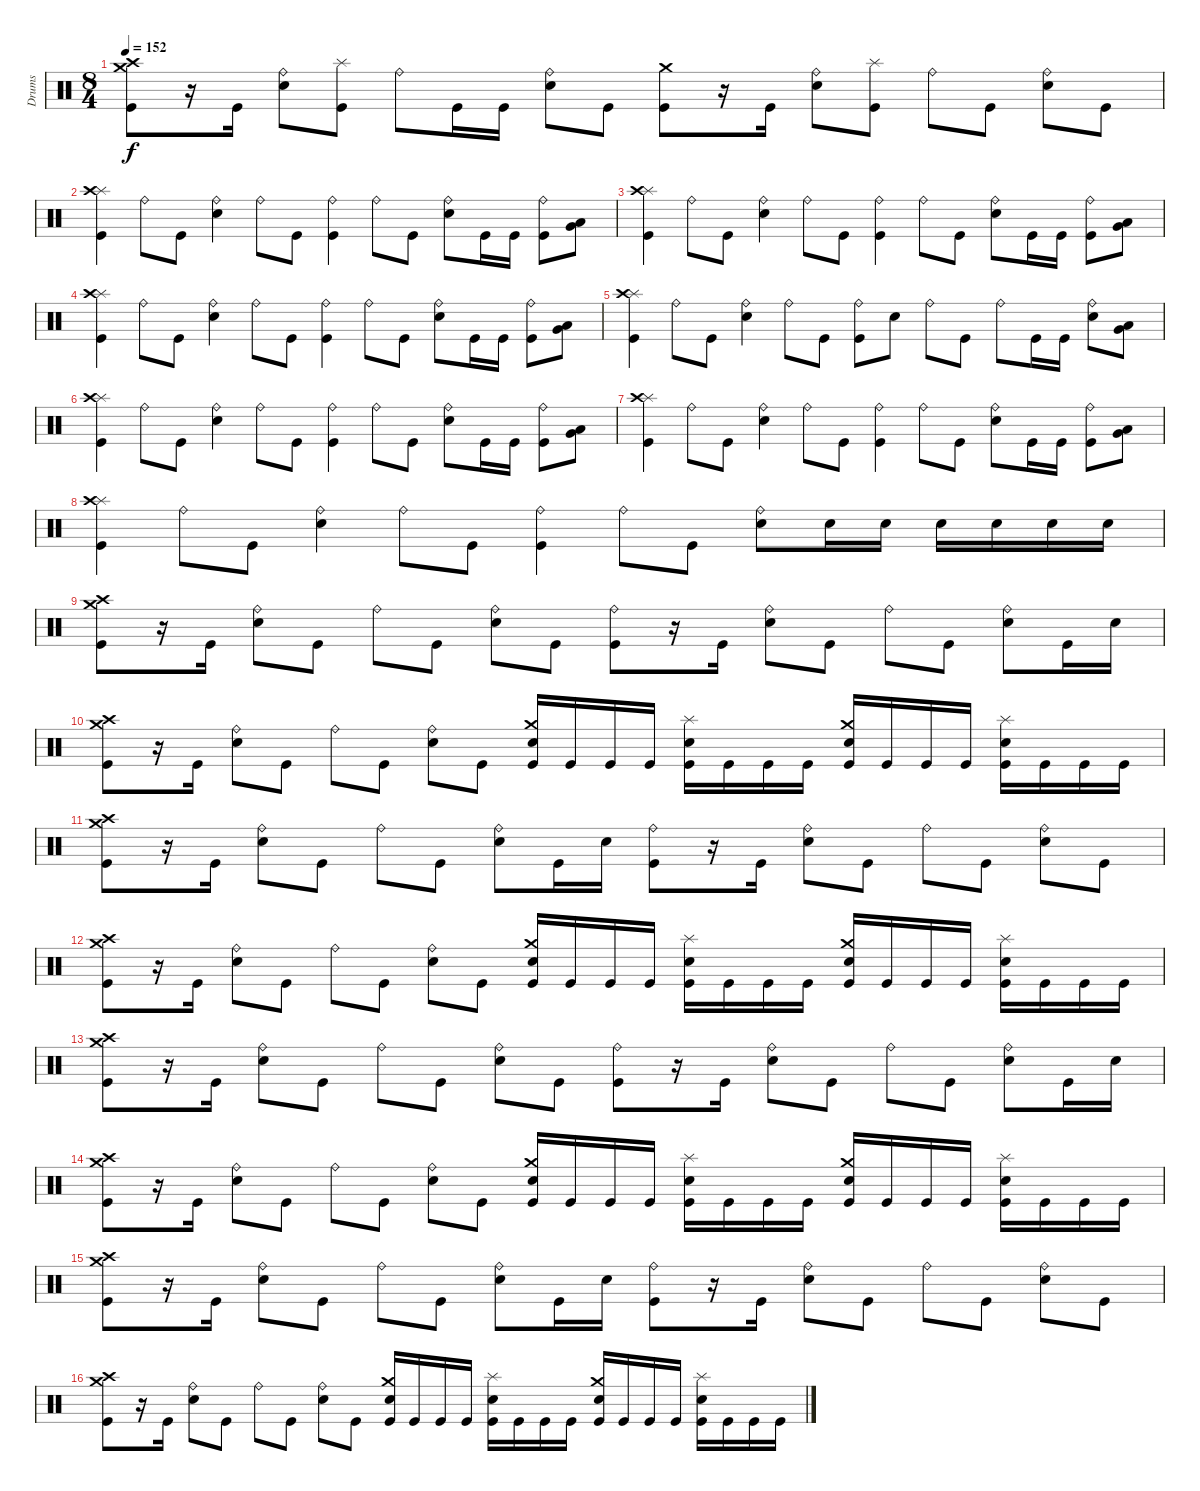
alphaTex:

\track ("Drums" "Drums") {instrument percussion}
\staff {score}
\articulation defaults
\ts (8 4)
\tempo 152
\clef neutral
\ks c
("Kick (hit)" "Crash high (hit)" "Crash medium (hit)").8{dy f} r.16 "Kick (hit)".16 ("Electric Snare (hit)" "Ride (bell)").8 ("Kick (hit)" "Splash (hit)").8 "Ride (bell)".8 "Kick (hit)".16 "Kick (hit)".16 ("Electric Snare (hit)" "Ride (bell)").8 "Kick (hit)".8 ("Kick (hit)" "Crash medium (hit)").8 r.16 "Kick (hit)".16 ("Electric Snare (hit)" "Ride (bell)").8 ("Kick (hit)" "Splash (hit)").8 "Ride (bell)".8 "Kick (hit)".8 ("Electric Snare (hit)" "Ride (bell)").8 "Kick (hit)".8 |
("Kick (hit)" "Splash (hit)" "Crash high (hit)").4 "Ride (bell)".8 "Kick (hit)".8 ("Electric Snare (hit)" "Ride (bell)").4 "Ride (bell)".8 "Kick (hit)".8 ("Kick (hit)" "Ride (bell)").4 "Ride (bell)".8 "Kick (hit)".8 ("Electric Snare (hit)" "Ride (bell)").8 "Kick (hit)".16 "Kick (hit)".16 ("Kick (hit)" "Ride (bell)").8 ("Very Low Tom (hit)" "Low Tom (hit)").8 |
("Kick (hit)" "Splash (hit)" "Crash high (hit)").4 "Ride (bell)".8 "Kick (hit)".8 ("Electric Snare (hit)" "Ride (bell)").4 "Ride (bell)".8 "Kick (hit)".8 ("Kick (hit)" "Ride (bell)").4 "Ride (bell)".8 "Kick (hit)".8 ("Electric Snare (hit)" "Ride (bell)").8 "Kick (hit)".16 "Kick (hit)".16 ("Kick (hit)" "Ride (bell)").8 ("Very Low Tom (hit)" "Low Tom (hit)").8 |
("Kick (hit)" "Splash (hit)" "Crash high (hit)").4 "Ride (bell)".8 "Kick (hit)".8 ("Electric Snare (hit)" "Ride (bell)").4 "Ride (bell)".8 "Kick (hit)".8 ("Kick (hit)" "Ride (bell)").4 "Ride (bell)".8 "Kick (hit)".8 ("Electric Snare (hit)" "Ride (bell)").8 "Kick (hit)".16 "Kick (hit)".16 ("Kick (hit)" "Ride (bell)").8 ("Very Low Tom (hit)" "Low Tom (hit)").8 |
("Kick (hit)" "Splash (hit)" "Crash high (hit)").4 "Ride (bell)".8 "Kick (hit)".8 ("Electric Snare (hit)" "Ride (bell)").4 "Ride (bell)".8 "Kick (hit)".8 ("Kick (hit)" "Ride (bell)").8 "Electric Snare (hit)".8 "Ride (bell)".8 "Kick (hit)".8 "Ride (bell)".8 "Kick (hit)".16 "Kick (hit)".16 ("Electric Snare (hit)" "Ride (bell)").8 ("Very Low Tom (hit)" "Low Tom (hit)").8 |
("Kick (hit)" "Splash (hit)" "Crash high (hit)").4 "Ride (bell)".8 "Kick (hit)".8 ("Electric Snare (hit)" "Ride (bell)").4 "Ride (bell)".8 "Kick (hit)".8 ("Kick (hit)" "Ride (bell)").4 "Ride (bell)".8 "Kick (hit)".8 ("Electric Snare (hit)" "Ride (bell)").8 "Kick (hit)".16 "Kick (hit)".16 ("Kick (hit)" "Ride (bell)").8 ("Very Low Tom (hit)" "Low Tom (hit)").8 |
("Kick (hit)" "Splash (hit)" "Crash high (hit)").4 "Ride (bell)".8 "Kick (hit)".8 ("Electric Snare (hit)" "Ride (bell)").4 "Ride (bell)".8 "Kick (hit)".8 ("Kick (hit)" "Ride (bell)").4 "Ride (bell)".8 "Kick (hit)".8 ("Electric Snare (hit)" "Ride (bell)").8 "Kick (hit)".16 "Kick (hit)".16 ("Kick (hit)" "Ride (bell)").8 ("Very Low Tom (hit)" "Low Tom (hit)").8 |
("Kick (hit)" "Splash (hit)" "Crash high (hit)").4 "Ride (bell)".8 "Kick (hit)".8 ("Electric Snare (hit)" "Ride (bell)").4 "Ride (bell)".8 "Kick (hit)".8 ("Kick (hit)" "Ride (bell)").4 "Ride (bell)".8 "Kick (hit)".8 ("Electric Snare (hit)" "Ride (bell)").8 "Electric Snare (hit)".16 "Electric Snare (hit)".16 "Electric Snare (hit)".16 "Electric Snare (hit)".16 "Electric Snare (hit)".16 "Electric Snare (hit)".16 |
("Kick (hit)" "Crash high (hit)" "Crash medium (hit)").8 r.16 "Kick (hit)".16 ("Electric Snare (hit)" "Ride (bell)").8 "Kick (hit)".8 "Ride (bell)".8 "Kick (hit)".8 ("Electric Snare (hit)" "Ride (bell)").8 "Kick (hit)".8 ("Kick (hit)" "Ride (bell)").8 r.16 "Kick (hit)".16 ("Electric Snare (hit)" "Ride (bell)").8 "Kick (hit)".8 "Ride (bell)".8 "Kick (hit)".8 ("Electric Snare (hit)" "Ride (bell)").8 "Kick (hit)".16 "Electric Snare (hit)".16 |
("Kick (hit)" "Crash high (hit)" "Crash medium (hit)").8 r.16 "Kick (hit)".16 ("Electric Snare (hit)" "Ride (bell)").8 "Kick (hit)".8 "Ride (bell)".8 "Kick (hit)".8 ("Electric Snare (hit)" "Ride (bell)").8 "Kick (hit)".8 ("Kick (hit)" "Crash medium (hit)" "Electric Snare (hit)").16 "Kick (hit)".16 "Kick (hit)".16 "Kick (hit)".16 ("Kick (hit)" "Splash (hit)" "Electric Snare (hit)").16 "Kick (hit)".16 "Kick (hit)".16 "Kick (hit)".16 ("Kick (hit)" "Crash medium (hit)" "Electric Snare (hit)").16 "Kick (hit)".16 "Kick (hit)".16 "Kick (hit)".16 ("Kick (hit)" "Splash (hit)" "Electric Snare (hit)").16 "Kick (hit)".16 "Kick (hit)".16 "Kick (hit)".16 |
("Kick (hit)" "Crash high (hit)" "Crash medium (hit)").8 r.16 "Kick (hit)".16 ("Electric Snare (hit)" "Ride (bell)").8 "Kick (hit)".8 "Ride (bell)".8 "Kick (hit)".8 ("Electric Snare (hit)" "Ride (bell)").8 "Kick (hit)".16 "Electric Snare (hit)".16 ("Kick (hit)" "Ride (bell)").8 r.16 "Kick (hit)".16 ("Electric Snare (hit)" "Ride (bell)").8 "Kick (hit)".8 "Ride (bell)".8 "Kick (hit)".8 ("Electric Snare (hit)" "Ride (bell)").8 "Kick (hit)".8 |
("Kick (hit)" "Crash high (hit)" "Crash medium (hit)").8 r.16 "Kick (hit)".16 ("Electric Snare (hit)" "Ride (bell)").8 "Kick (hit)".8 "Ride (bell)".8 "Kick (hit)".8 ("Electric Snare (hit)" "Ride (bell)").8 "Kick (hit)".8 ("Kick (hit)" "Crash medium (hit)" "Electric Snare (hit)").16 "Kick (hit)".16 "Kick (hit)".16 "Kick (hit)".16 ("Kick (hit)" "Splash (hit)" "Electric Snare (hit)").16 "Kick (hit)".16 "Kick (hit)".16 "Kick (hit)".16 ("Kick (hit)" "Crash medium (hit)" "Electric Snare (hit)").16 "Kick (hit)".16 "Kick (hit)".16 "Kick (hit)".16 ("Kick (hit)" "Splash (hit)" "Electric Snare (hit)").16 "Kick (hit)".16 "Kick (hit)".16 "Kick (hit)".16 |
("Kick (hit)" "Crash high (hit)" "Crash medium (hit)").8 r.16 "Kick (hit)".16 ("Electric Snare (hit)" "Ride (bell)").8 "Kick (hit)".8 "Ride (bell)".8 "Kick (hit)".8 ("Electric Snare (hit)" "Ride (bell)").8 "Kick (hit)".8 ("Kick (hit)" "Ride (bell)").8 r.16 "Kick (hit)".16 ("Electric Snare (hit)" "Ride (bell)").8 "Kick (hit)".8 "Ride (bell)".8 "Kick (hit)".8 ("Electric Snare (hit)" "Ride (bell)").8 "Kick (hit)".16 "Electric Snare (hit)".16 |
("Kick (hit)" "Crash high (hit)" "Crash medium (hit)").8 r.16 "Kick (hit)".16 ("Electric Snare (hit)" "Ride (bell)").8 "Kick (hit)".8 "Ride (bell)".8 "Kick (hit)".8 ("Electric Snare (hit)" "Ride (bell)").8 "Kick (hit)".8 ("Kick (hit)" "Crash medium (hit)" "Electric Snare (hit)").16 "Kick (hit)".16 "Kick (hit)".16 "Kick (hit)".16 ("Kick (hit)" "Splash (hit)" "Electric Snare (hit)").16 "Kick (hit)".16 "Kick (hit)".16 "Kick (hit)".16 ("Kick (hit)" "Crash medium (hit)" "Electric Snare (hit)").16 "Kick (hit)".16 "Kick (hit)".16 "Kick (hit)".16 ("Kick (hit)" "Splash (hit)" "Electric Snare (hit)").16 "Kick (hit)".16 "Kick (hit)".16 "Kick (hit)".16 |
("Kick (hit)" "Crash high (hit)" "Crash medium (hit)").8 r.16 "Kick (hit)".16 ("Electric Snare (hit)" "Ride (bell)").8 "Kick (hit)".8 "Ride (bell)".8 "Kick (hit)".8 ("Electric Snare (hit)" "Ride (bell)").8 "Kick (hit)".16 "Electric Snare (hit)".16 ("Kick (hit)" "Ride (bell)").8 r.16 "Kick (hit)".16 ("Electric Snare (hit)" "Ride (bell)").8 "Kick (hit)".8 "Ride (bell)".8 "Kick (hit)".8 ("Electric Snare (hit)" "Ride (bell)").8 "Kick (hit)".8 |
("Kick (hit)" "Crash high (hit)" "Crash medium (hit)").8 r.16 "Kick (hit)".16 ("Electric Snare (hit)" "Ride (bell)").8 "Kick (hit)".8 "Ride (bell)".8 "Kick (hit)".8 ("Electric Snare (hit)" "Ride (bell)").8 "Kick (hit)".8 ("Kick (hit)" "Crash medium (hit)" "Electric Snare (hit)").16 "Kick (hit)".16 "Kick (hit)".16 "Kick (hit)".16 ("Kick (hit)" "Splash (hit)" "Electric Snare (hit)").16 "Kick (hit)".16 "Kick (hit)".16 "Kick (hit)".16 ("Kick (hit)" "Crash medium (hit)" "Electric Snare (hit)").16 "Kick (hit)".16 "Kick (hit)".16 "Kick (hit)".16 ("Kick (hit)" "Splash (hit)" "Electric Snare (hit)").16 "Kick (hit)".16 "Kick (hit)".16 "Kick (hit)".16
